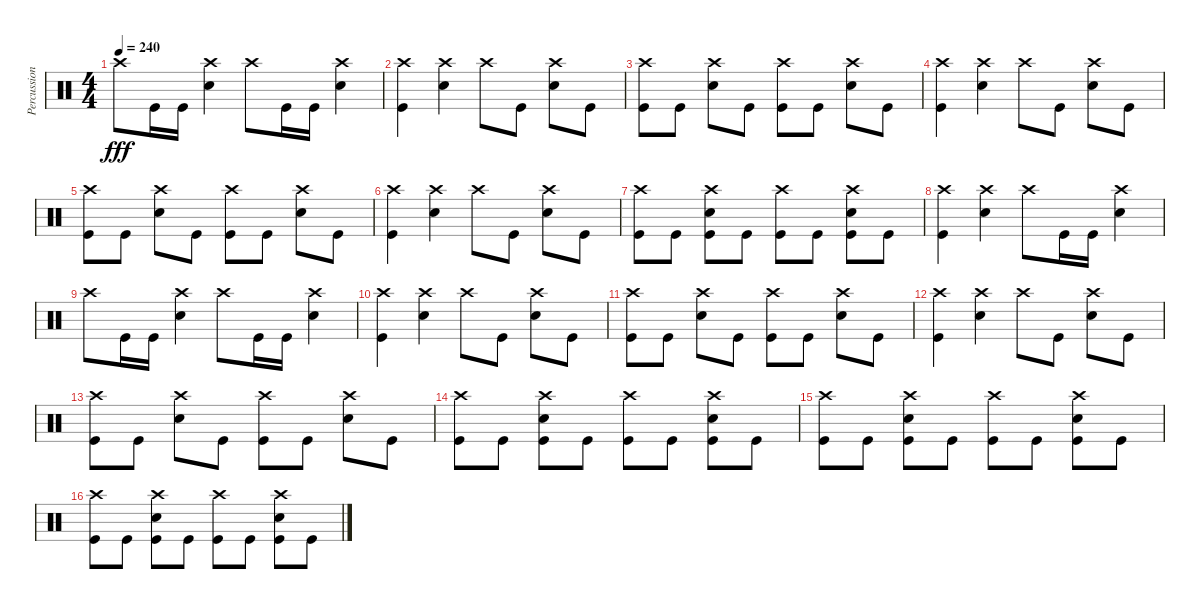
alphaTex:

\track ("Percussion" "Percussion") {instrument percussion}
\staff {score}
\articulation defaults
\ts (4 4)
\tempo 240
\clef neutral
\ks c "Crash high (hit)".8{dy fff} "Kick (hit)".16 "Kick (hit)".16
("Crash high (hit)" "Snare (hit) 2").4 "Crash high (hit)".8 "Kick (hit)".16 "Kick (hit)".16 ("Crash high (hit)" "Snare (hit) 2").4 |
("Crash high (hit)" "Kick (hit)").4 ("Crash high (hit)" "Snare (hit) 2").4 "Crash high (hit)".8 "Kick (hit)".8 ("Crash high (hit)" "Snare (hit) 2").8 "Kick (hit)".8 |
("Crash high (hit)" "Kick (hit)").8 "Kick (hit)".8 ("Crash high (hit)" "Snare (hit) 2").8 "Kick (hit)".8 ("Crash high (hit)" "Kick (hit)").8 "Kick (hit)".8 ("Crash high (hit)" "Snare (hit) 2").8 "Kick (hit)".8 |
("Crash high (hit)" "Kick (hit)").4 ("Crash high (hit)" "Snare (hit) 2").4 "Crash high (hit)".8 "Kick (hit)".8 ("Crash high (hit)" "Snare (hit) 2").8 "Kick (hit)".8 |
("Crash high (hit)" "Kick (hit)").8 "Kick (hit)".8 ("Crash high (hit)" "Snare (hit) 2").8 "Kick (hit)".8 ("Crash high (hit)" "Kick (hit)").8 "Kick (hit)".8 ("Crash high (hit)" "Snare (hit) 2").8 "Kick (hit)".8 |
("Crash high (hit)" "Kick (hit)").4 ("Crash high (hit)" "Snare (hit) 2").4 "Crash high (hit)".8 "Kick (hit)".8 ("Crash high (hit)" "Snare (hit) 2").8 "Kick (hit)".8 |
("Crash high (hit)" "Kick (hit)").8 "Kick (hit)".8 ("Crash high (hit)" "Snare (hit) 2" "Kick (hit)").8 "Kick (hit)".8 ("Crash high (hit)" "Kick (hit)").8 "Kick (hit)".8 ("Crash high (hit)" "Snare (hit) 2" "Kick (hit)").8 "Kick (hit)".8 |
("Crash high (hit)" "Kick (hit)").4 ("Crash high (hit)" "Snare (hit) 2").4 "Crash high (hit)".8 "Kick (hit)".16 "Kick (hit)".16 ("Crash high (hit)" "Snare (hit) 2").4 |
"Crash high (hit)".8 "Kick (hit)".16 "Kick (hit)".16 ("Crash high (hit)" "Snare (hit) 2").4 "Crash high (hit)".8 "Kick (hit)".16 "Kick (hit)".16 ("Crash high (hit)" "Snare (hit) 2").4 |
("Crash high (hit)" "Kick (hit)").4 ("Crash high (hit)" "Snare (hit) 2").4 "Crash high (hit)".8 "Kick (hit)".8 ("Crash high (hit)" "Snare (hit) 2").8 "Kick (hit)".8 |
("Crash high (hit)" "Kick (hit)").8 "Kick (hit)".8 ("Crash high (hit)" "Snare (hit) 2").8 "Kick (hit)".8 ("Crash high (hit)" "Kick (hit)").8 "Kick (hit)".8 ("Crash high (hit)" "Snare (hit) 2").8 "Kick (hit)".8 |
("Crash high (hit)" "Kick (hit)").4 ("Crash high (hit)" "Snare (hit) 2").4 "Crash high (hit)".8 "Kick (hit)".8 ("Crash high (hit)" "Snare (hit) 2").8 "Kick (hit)".8 |
("Crash high (hit)" "Kick (hit)").8 "Kick (hit)".8 ("Crash high (hit)" "Snare (hit) 2").8 "Kick (hit)".8 ("Crash high (hit)" "Kick (hit)").8 "Kick (hit)".8 ("Crash high (hit)" "Snare (hit) 2").8 "Kick (hit)".8 |
("Crash high (hit)" "Kick (hit)").8 "Kick (hit)".8 ("Crash high (hit)" "Snare (hit) 2" "Kick (hit)").8 "Kick (hit)".8 ("Crash high (hit)" "Kick (hit)").8 "Kick (hit)".8 ("Crash high (hit)" "Snare (hit) 2" "Kick (hit)").8 "Kick (hit)".8 |
("Crash high (hit)" "Kick (hit)").8 "Kick (hit)".8 ("Crash high (hit)" "Snare (hit) 2" "Kick (hit)").8 "Kick (hit)".8 ("Crash high (hit)" "Kick (hit)").8 "Kick (hit)".8 ("Crash high (hit)" "Snare (hit) 2" "Kick (hit)").8 "Kick (hit)".8 |
("Crash high (hit)" "Kick (hit)").8 "Kick (hit)".8 ("Crash high (hit)" "Snare (hit) 2" "Kick (hit)").8 "Kick (hit)".8 ("Crash high (hit)" "Kick (hit)").8 "Kick (hit)".8 ("Crash high (hit)" "Snare (hit) 2" "Kick (hit)").8 "Kick (hit)".8
